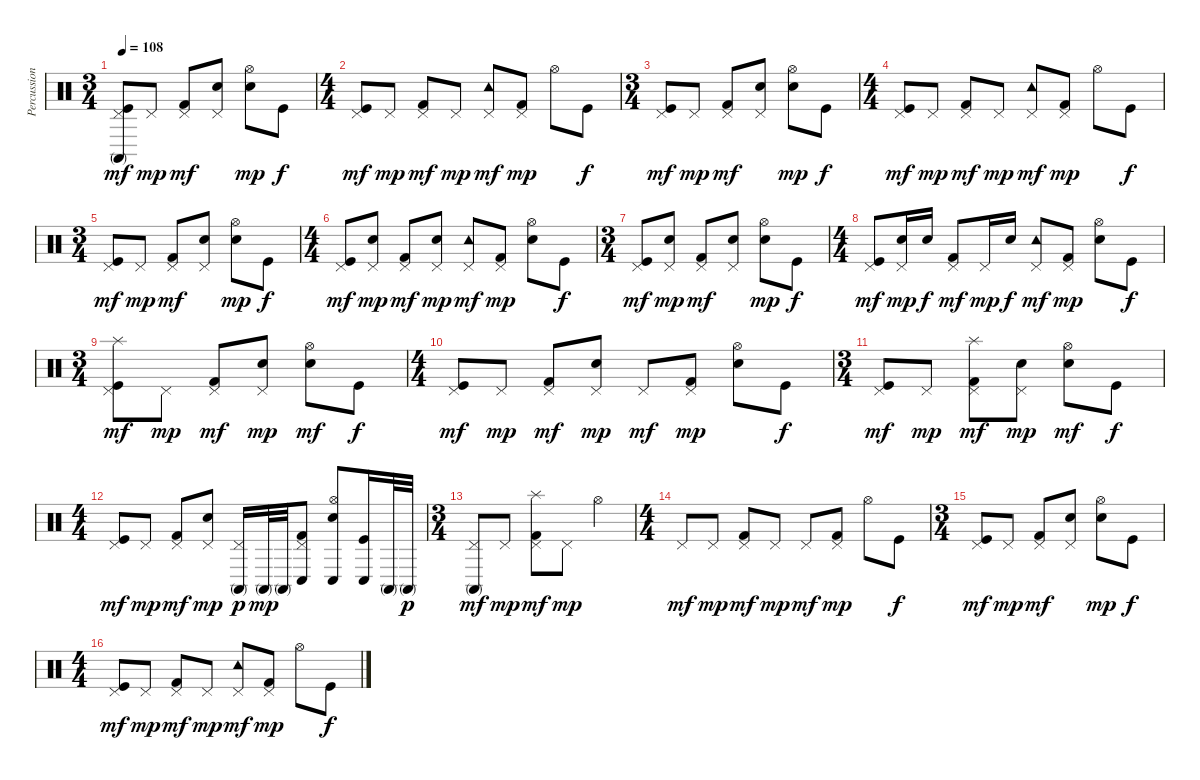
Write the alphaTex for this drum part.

\track ("Percussion" "Percussion") {instrument percussion}
\staff {score}
\articulation defaults
\ts (3 4)
\tempo 108
\clef neutral
\ks c
("Pedal Hi-Hat (hit)" "Conga high (mute)" "Kick (hit)").8{dy mf} "Pedal Hi-Hat (hit)".8{dy mp} ("Pedal Hi-Hat (hit)" "Kick (hit) 2").8{dy mf} ("Pedal Hi-Hat (hit)" "Snare (hit) 2").8 ("Hi-Hat (open)" "Hand Clap (hit)").8{dy mp} "Kick (hit)".8{dy f} |
\ts (4 4)
("Pedal Hi-Hat (hit)" "Kick (hit)").8{dy mf} "Pedal Hi-Hat (hit)".8{dy mp} ("Pedal Hi-Hat (hit)" "Kick (hit) 2").8{dy mf} "Pedal Hi-Hat (hit)".8{dy mp} ("Pedal Hi-Hat (hit)" "Tambourine (hit)").8{dy mf} ("Pedal Hi-Hat (hit)" "Kick (hit) 2").8{dy mp} "Hi-Hat (open)".8 "Kick (hit)".8{dy f} |
\ts (3 4)
("Pedal Hi-Hat (hit)" "Kick (hit)").8{dy mf} "Pedal Hi-Hat (hit)".8{dy mp} ("Pedal Hi-Hat (hit)" "Kick (hit) 2").8{dy mf} ("Pedal Hi-Hat (hit)" "Snare (hit) 2").8 ("Hi-Hat (open)" "Hand Clap (hit)").8{dy mp} "Kick (hit)".8{dy f} |
\ts (4 4)
("Pedal Hi-Hat (hit)" "Kick (hit)").8{dy mf} "Pedal Hi-Hat (hit)".8{dy mp} ("Pedal Hi-Hat (hit)" "Kick (hit) 2").8{dy mf} "Pedal Hi-Hat (hit)".8{dy mp} ("Pedal Hi-Hat (hit)" "Tambourine (hit)").8{dy mf} ("Pedal Hi-Hat (hit)" "Kick (hit) 2").8{dy mp} "Hi-Hat (open)".8 "Kick (hit)".8{dy f} |
\ts (3 4)
("Pedal Hi-Hat (hit)" "Kick (hit)").8{dy mf} "Pedal Hi-Hat (hit)".8{dy mp} ("Pedal Hi-Hat (hit)" "Kick (hit) 2").8{dy mf} ("Pedal Hi-Hat (hit)" "Snare (hit) 2").8 ("Hi-Hat (open)" "Hand Clap (hit)").8{dy mp} "Kick (hit)".8{dy f} |
\ts (4 4)
("Pedal Hi-Hat (hit)" "Kick (hit)").8{dy mf} ("Pedal Hi-Hat (hit)" "Hand Clap (hit)").8{dy mp} ("Pedal Hi-Hat (hit)" "Kick (hit) 2").8{dy mf} ("Pedal Hi-Hat (hit)" "Hand Clap (hit)").8{dy mp} ("Pedal Hi-Hat (hit)" "Tambourine (hit)").8{dy mf} ("Pedal Hi-Hat (hit)" "Kick (hit) 2").8{dy mp} ("Hi-Hat (open)" "Hand Clap (hit)").8 "Kick (hit)".8{dy f} |
\ts (3 4)
("Pedal Hi-Hat (hit)" "Kick (hit)").8{dy mf} ("Pedal Hi-Hat (hit)" "Hand Clap (hit)").8{dy mp} ("Pedal Hi-Hat (hit)" "Kick (hit) 2").8{dy mf} ("Pedal Hi-Hat (hit)" "Snare (hit) 2").8 ("Hi-Hat (open)" "Hand Clap (hit)").8{dy mp} "Kick (hit)".8{dy f} |
\ts (4 4)
("Pedal Hi-Hat (hit)" "Kick (hit)").8{dy mf} ("Pedal Hi-Hat (hit)" "Snare (hit) 2").16{dy mp} "Snare (hit) 2".16{dy f} ("Pedal Hi-Hat (hit)" "Kick (hit) 2").8{dy mf} "Pedal Hi-Hat (hit)".16{dy mp} "Snare (hit) 2".16{dy f} ("Pedal Hi-Hat (hit)" "Tambourine (hit)").8{dy mf} ("Pedal Hi-Hat (hit)" "Kick (hit) 2").8{dy mp} ("Hi-Hat (open)" "Snare (hit) 2").8 "Kick (hit)".8{dy f} |
\ts (3 4)
("Pedal Hi-Hat (hit)" "Splash (hit)" "Kick (hit)").8{dy mf} "Pedal Hi-Hat (hit)".8{dy mp} ("Pedal Hi-Hat (hit)" "Kick (hit) 2").8{dy mf} ("Pedal Hi-Hat (hit)" "Hand Clap (hit)").8{dy mp} ("Hi-Hat (open)" "Hand Clap (hit)").8{dy mf} "Kick (hit)".8{dy f} |
\ts (4 4)
("Pedal Hi-Hat (hit)" "Kick (hit)").8{dy mf} "Pedal Hi-Hat (hit)".8{dy mp} ("Pedal Hi-Hat (hit)" "Kick (hit) 2").8{dy mf} ("Pedal Hi-Hat (hit)" "Hand Clap (hit)").8{dy mp} "Pedal Hi-Hat (hit)".8{dy mf} ("Pedal Hi-Hat (hit)" "Kick (hit) 2").8{dy mp} ("Hi-Hat (open)" "Hand Clap (hit)").8 "Kick (hit)".8{dy f} |
\ts (3 4)
("Pedal Hi-Hat (hit)" "Kick (hit)").8{dy mf} "Pedal Hi-Hat (hit)".8{dy mp} ("Pedal Hi-Hat (hit)" "Splash (hit)" "Kick (hit) 2").8{dy mf} ("Pedal Hi-Hat (hit)" "Hand Clap (hit)").8{dy mp} ("Hi-Hat (open)" "Hand Clap (hit)").8{dy mf} "Kick (hit)".8{dy f} |
\ts (4 4)
("Pedal Hi-Hat (hit)" "Kick (hit)").8{dy mf} "Pedal Hi-Hat (hit)".8{dy mp} ("Pedal Hi-Hat (hit)" "Kick (hit) 2").8{dy mf} ("Pedal Hi-Hat (hit)" "Hand Clap (hit)").8{dy mp} ("Pedal Hi-Hat (hit)" "Conga high (mute)").16{dy p} "Conga high (mute)".32{dy mp} "Conga high (mute)".32 ("Pedal Hi-Hat (hit)" "Conga low (hit)" "Kick (hit) 2").8 ("Hi-Hat (open)" "Conga low (hit)" "Hand Clap (hit)").8 ("Conga low (hit)" "Kick (hit)").16 "Conga high (mute)".32 "Conga high (mute)".32{dy p} |
\ts (3 4)
("Pedal Hi-Hat (hit)" "Conga high (mute)").8{dy mf} "Pedal Hi-Hat (hit)".8{dy mp} ("Pedal Hi-Hat (hit)" "Splash (hit)" "Kick (hit) 2").8{dy mf} "Pedal Hi-Hat (hit)".8{dy mp} "Hi-Hat (open)".4 |
\ts (4 4)
"Pedal Hi-Hat (hit)".8{dy mf} "Pedal Hi-Hat (hit)".8{dy mp} ("Pedal Hi-Hat (hit)" "Kick (hit) 2").8{dy mf} "Pedal Hi-Hat (hit)".8{dy mp} "Pedal Hi-Hat (hit)".8{dy mf} ("Pedal Hi-Hat (hit)" "Kick (hit) 2").8{dy mp} "Hi-Hat (open)".8 "Kick (hit)".8{dy f} |
\ts (3 4)
("Pedal Hi-Hat (hit)" "Kick (hit)").8{dy mf} "Pedal Hi-Hat (hit)".8{dy mp} ("Pedal Hi-Hat (hit)" "Kick (hit) 2").8{dy mf} ("Pedal Hi-Hat (hit)" "Snare (hit) 2").8 ("Hi-Hat (open)" "Hand Clap (hit)").8{dy mp} "Kick (hit)".8{dy f} |
\ts (4 4)
("Pedal Hi-Hat (hit)" "Kick (hit)").8{dy mf} "Pedal Hi-Hat (hit)".8{dy mp} ("Pedal Hi-Hat (hit)" "Kick (hit) 2").8{dy mf} "Pedal Hi-Hat (hit)".8{dy mp} ("Pedal Hi-Hat (hit)" "Tambourine (hit)").8{dy mf} ("Pedal Hi-Hat (hit)" "Kick (hit) 2").8{dy mp} "Hi-Hat (open)".8 "Kick (hit)".8{dy f}
